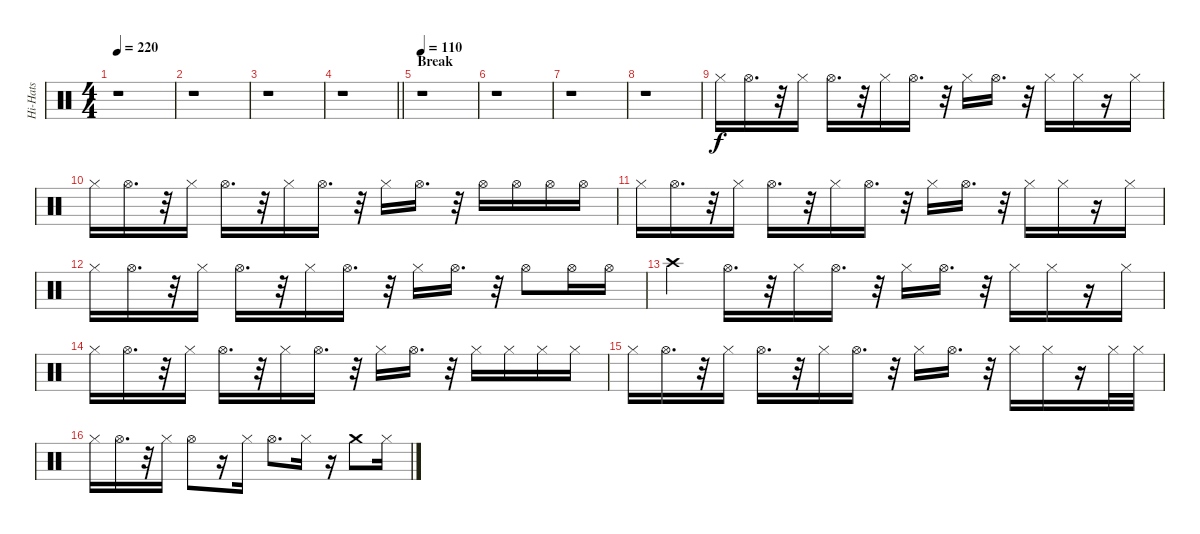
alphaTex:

\track ("Hi-Hats" "Hi-Hats") {instrument percussion}
\staff {score}
\articulation defaults
\ts (4 4)
\tempo 220
\clef neutral
\ks c
r.1{dy f} |
r.1 |
r.1 |
\barLineRight lightlight
r.1 |
\section ("" "Break")
\tempo 110
r.1 |
r.1 |
r.1 |
r.1 |
"Hi-Hat (closed)".16{volume 12} "Hi-Hat (open)".16{d} r.32{volume 0} "Hi-Hat (closed)".16{volume 12} "Hi-Hat (open)".16{d} r.32{volume 0} "Hi-Hat (closed)".16{volume 12} "Hi-Hat (open)".16{d} r.32{volume 0} "Hi-Hat (closed)".16{volume 12} "Hi-Hat (open)".16{d} r.32{volume 0} "Hi-Hat (closed)".16{volume 12} "Hi-Hat (closed)".16 r.16 "Hi-Hat (closed)".16 |
"Hi-Hat (closed)".16{volume 12} "Hi-Hat (open)".16{d} r.32{volume 0} "Hi-Hat (closed)".16{volume 12} "Hi-Hat (open)".16{d} r.32{volume 0} "Hi-Hat (closed)".16{volume 12} "Hi-Hat (open)".16{d} r.32{volume 0} "Hi-Hat (closed)".16{volume 12} "Hi-Hat (open)".16{d} r.32{volume 0} "Hi-Hat (open)".16{volume 12} "Hi-Hat (open)".16 "Hi-Hat (open)".16 "Hi-Hat (open)".16 |
"Hi-Hat (closed)".16{volume 12} "Hi-Hat (open)".16{d} r.32{volume 0} "Hi-Hat (closed)".16{volume 12} "Hi-Hat (open)".16{d} r.32{volume 0} "Hi-Hat (closed)".16{volume 12} "Hi-Hat (open)".16{d} r.32{volume 0} "Hi-Hat (closed)".16{volume 12} "Hi-Hat (open)".16{d} r.32{volume 0} "Hi-Hat (closed)".16{volume 12} "Hi-Hat (closed)".16 r.16 "Hi-Hat (closed)".16 |
"Hi-Hat (closed)".16{volume 12} "Hi-Hat (open)".16{d} r.32{volume 0} "Hi-Hat (closed)".16{volume 12} "Hi-Hat (open)".16{d} r.32{volume 0} "Hi-Hat (closed)".16{volume 12} "Hi-Hat (open)".16{d} r.32{volume 0} "Hi-Hat (closed)".16{volume 12} "Hi-Hat (open)".16{d} r.32{volume 0} "Hi-Hat (open)".8{volume 12} "Hi-Hat (open)".16 "Hi-Hat (open)".16 |
"Crash high (hit)".4 "Hi-Hat (open)".16{d} r.32{volume 0} "Hi-Hat (closed)".16{volume 12} "Hi-Hat (open)".16{d} r.32{volume 0} "Hi-Hat (closed)".16{volume 12} "Hi-Hat (open)".16{d} r.32{volume 0} "Hi-Hat (closed)".16{volume 12} "Hi-Hat (closed)".16 r.16 "Hi-Hat (closed)".16 |
"Hi-Hat (closed)".16{volume 12} "Hi-Hat (open)".16{d} r.32{volume 0} "Hi-Hat (closed)".16{volume 12} "Hi-Hat (open)".16{d} r.32{volume 0} "Hi-Hat (closed)".16{volume 12} "Hi-Hat (open)".16{d} r.32{volume 0} "Hi-Hat (closed)".16{volume 12} "Hi-Hat (open)".16{d} r.32{volume 0} "Hi-Hat (closed)".16{volume 12} "Hi-Hat (closed)".16 "Hi-Hat (closed)".16 "Hi-Hat (closed)".16 |
"Hi-Hat (closed)".16{volume 12} "Hi-Hat (open)".16{d} r.32{volume 0} "Hi-Hat (closed)".16{volume 12} "Hi-Hat (open)".16{d} r.32{volume 0} "Hi-Hat (closed)".16{volume 12} "Hi-Hat (open)".16{d} r.32{volume 0} "Hi-Hat (closed)".16{volume 12} "Hi-Hat (open)".16{d} r.32{volume 0} "Hi-Hat (closed)".16{volume 12} "Hi-Hat (closed)".16 r.16 "Hi-Hat (closed)".32 "Hi-Hat (closed)".32 |
"Hi-Hat (closed)".16{volume 12} "Hi-Hat (open)".16{d} r.32{volume 0} "Hi-Hat (closed)".16{volume 12} "Hi-Hat (open)".8 r.16{volume 0} "Hi-Hat (closed)".16{volume 12} "Hi-Hat (open)".8{d} "Hi-Hat (closed)".16 r.16 "Crash medium (hit)".8 "Hi-Hat (closed)".16
